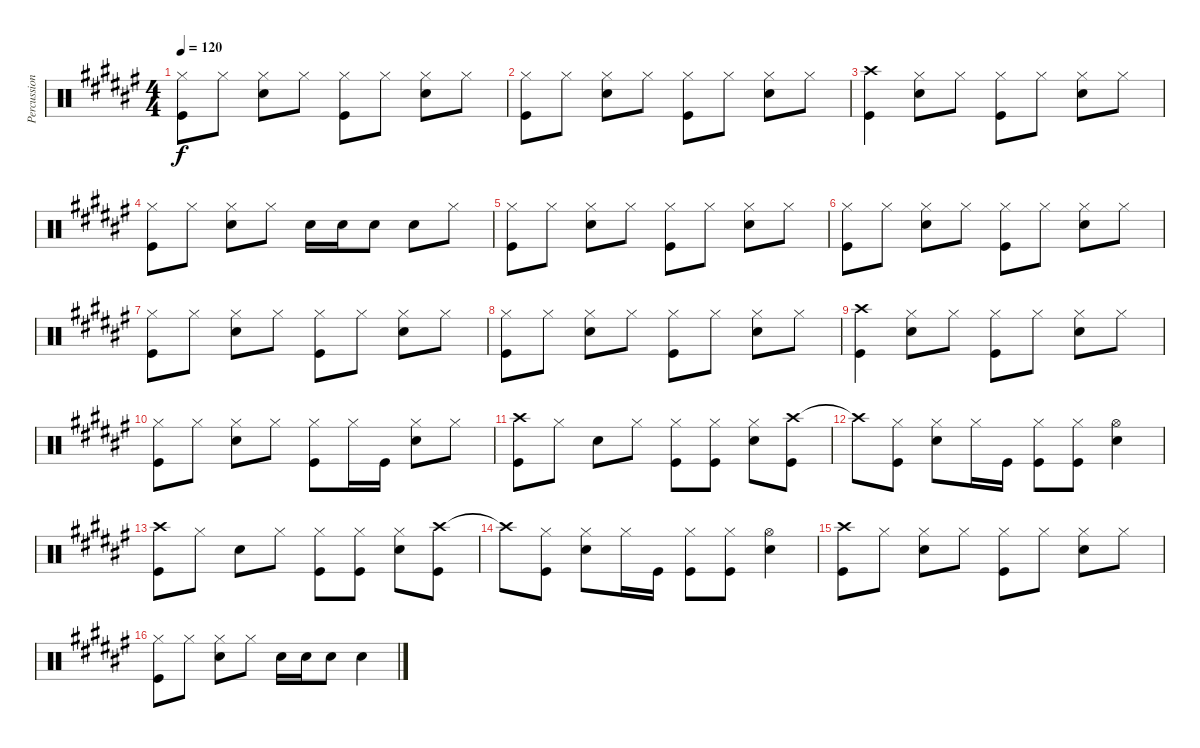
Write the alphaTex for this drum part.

\track ("Percussion" "Percussion") {instrument percussion}
\staff {score}
\articulation defaults
\ts (4 4)
\tempo 120
\clef neutral
\ks f#
("Hi-Hat (closed)" "Kick (hit)").8{dy f} "Hi-Hat (closed)".8 ("Hi-Hat (closed)" "Snare (hit) 2").8 "Hi-Hat (closed)".8 ("Hi-Hat (closed)" "Kick (hit)").8 "Hi-Hat (closed)".8 ("Hi-Hat (closed)" "Snare (hit) 2").8 "Hi-Hat (closed)".8 |
("Hi-Hat (closed)" "Kick (hit)").8 "Hi-Hat (closed)".8 ("Hi-Hat (closed)" "Snare (hit) 2").8 "Hi-Hat (closed)".8 ("Hi-Hat (closed)" "Kick (hit)").8 "Hi-Hat (closed)".8 ("Hi-Hat (closed)" "Snare (hit) 2").8 "Hi-Hat (closed)".8 |
("Crash high (hit)" "Kick (hit)").4 ("Hi-Hat (closed)" "Snare (hit) 2").8 "Hi-Hat (closed)".8 ("Hi-Hat (closed)" "Kick (hit)").8 "Hi-Hat (closed)".8 ("Hi-Hat (closed)" "Snare (hit) 2").8 "Hi-Hat (closed)".8 |
("Hi-Hat (closed)" "Kick (hit)").8 "Hi-Hat (closed)".8 ("Hi-Hat (closed)" "Snare (hit) 2").8 "Hi-Hat (closed)".8 "Snare (hit) 2".16 "Snare (hit) 2".16 "Snare (hit) 2".8 "Snare (hit) 2".8 "Hi-Hat (closed)".8 |
("Hi-Hat (closed)" "Kick (hit)").8 "Hi-Hat (closed)".8 ("Hi-Hat (closed)" "Snare (hit) 2").8 "Hi-Hat (closed)".8 ("Hi-Hat (closed)" "Kick (hit)").8 "Hi-Hat (closed)".8 ("Hi-Hat (closed)" "Snare (hit) 2").8 "Hi-Hat (closed)".8 |
("Hi-Hat (closed)" "Kick (hit)").8 "Hi-Hat (closed)".8 ("Hi-Hat (closed)" "Snare (hit) 2").8 "Hi-Hat (closed)".8 ("Hi-Hat (closed)" "Kick (hit)").8 "Hi-Hat (closed)".8 ("Hi-Hat (closed)" "Snare (hit) 2").8 "Hi-Hat (closed)".8 |
("Hi-Hat (closed)" "Kick (hit)").8 "Hi-Hat (closed)".8 ("Hi-Hat (closed)" "Snare (hit) 2").8 "Hi-Hat (closed)".8 ("Hi-Hat (closed)" "Kick (hit)").8 "Hi-Hat (closed)".8 ("Hi-Hat (closed)" "Snare (hit) 2").8 "Hi-Hat (closed)".8 |
("Hi-Hat (closed)" "Kick (hit)").8 "Hi-Hat (closed)".8 ("Hi-Hat (closed)" "Snare (hit) 2").8 "Hi-Hat (closed)".8 ("Hi-Hat (closed)" "Kick (hit)").8 "Hi-Hat (closed)".8 ("Hi-Hat (closed)" "Snare (hit) 2").8 "Hi-Hat (closed)".8 |
("Crash high (hit)" "Kick (hit)").4 ("Hi-Hat (closed)" "Snare (hit) 2").8 "Hi-Hat (closed)".8 ("Hi-Hat (closed)" "Kick (hit)").8 "Hi-Hat (closed)".8 ("Hi-Hat (closed)" "Snare (hit) 2").8 "Hi-Hat (closed)".8 |
("Hi-Hat (closed)" "Kick (hit)").8 "Hi-Hat (closed)".8 ("Hi-Hat (closed)" "Snare (hit) 2").8 "Hi-Hat (closed)".8 ("Hi-Hat (closed)" "Kick (hit)").8 "Hi-Hat (closed)".16 "Kick (hit)".16 ("Hi-Hat (closed)" "Snare (hit) 2").8 "Hi-Hat (closed)".8 |
("Crash high (hit)" "Kick (hit)").8 "Hi-Hat (closed)".8 "Snare (hit) 2".8 "Hi-Hat (closed)".8 ("Hi-Hat (closed)" "Kick (hit)").8 ("Hi-Hat (closed)" "Kick (hit)").8 ("Hi-Hat (closed)" "Snare (hit) 2").8 ("Crash high (hit)" "Kick (hit)").8 |
"Crash high (hit)"{t}.8 ("Hi-Hat (closed)" "Kick (hit)").8 ("Hi-Hat (closed)" "Snare (hit) 2").8 "Hi-Hat (closed)".16 "Kick (hit)".16 ("Hi-Hat (closed)" "Kick (hit)").8 ("Hi-Hat (closed)" "Kick (hit)").8 ("Hi-Hat (open)" "Snare (hit) 2").4 |
("Crash high (hit)" "Kick (hit)").8 "Hi-Hat (closed)".8 "Snare (hit) 2".8 "Hi-Hat (closed)".8 ("Hi-Hat (closed)" "Kick (hit)").8 ("Hi-Hat (closed)" "Kick (hit)").8 ("Hi-Hat (closed)" "Snare (hit) 2").8 ("Crash high (hit)" "Kick (hit)").8 |
"Crash high (hit)"{t}.8 ("Hi-Hat (closed)" "Kick (hit)").8 ("Hi-Hat (closed)" "Snare (hit) 2").8 "Hi-Hat (closed)".16 "Kick (hit)".16 ("Hi-Hat (closed)" "Kick (hit)").8 ("Hi-Hat (closed)" "Kick (hit)").8 ("Hi-Hat (open)" "Snare (hit) 2").4 |
("Crash high (hit)" "Kick (hit)").8 "Hi-Hat (closed)".8 ("Hi-Hat (closed)" "Snare (hit) 2").8 "Hi-Hat (closed)".8 ("Hi-Hat (closed)" "Kick (hit)").8 "Hi-Hat (closed)".8 ("Hi-Hat (closed)" "Snare (hit) 2").8 "Hi-Hat (closed)".8 |
("Hi-Hat (closed)" "Kick (hit)").8 "Hi-Hat (closed)".8 ("Hi-Hat (closed)" "Snare (hit) 2").8 "Hi-Hat (closed)".8 "Snare (hit) 2".16 "Snare (hit) 2".16 "Snare (hit) 2".8 "Snare (hit) 2".4
